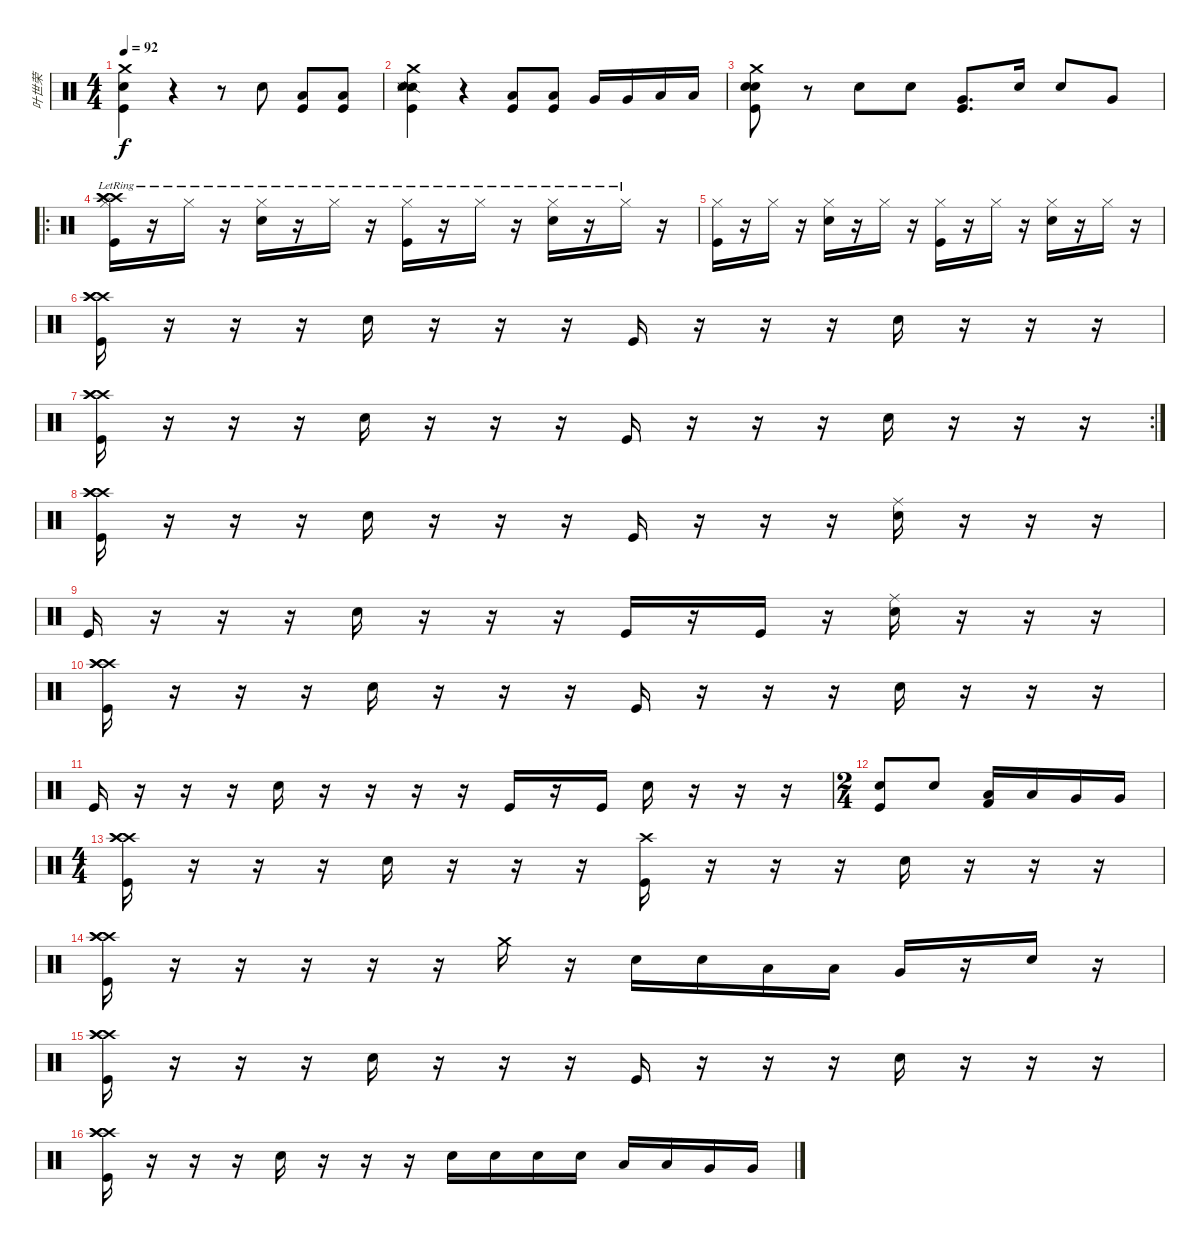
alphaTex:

\track ("叶世荣" "叶世荣") {instrument percussion}
\staff {score}
\articulation defaults
\ts (4 4)
\tempo 92
\clef neutral
\ks c
("Crash medium (hit)" "Electric Snare (hit)" "Kick (hit)").4{dy f} r.4 r.8 "Electric Snare (hit)".8 ("Low Floor Tom (hit)" "Kick (hit)").8 ("Low Floor Tom (hit)" "Kick (hit)").8 |
("Snare (side stick) 2" "Metronome (hit)" "Metronome (bell)" "Kick (hit)" "Crash medium (hit)").4 r.4 ("Low Tom (hit)" "Kick (hit)").8 ("Low Tom (hit)" "Kick (hit)").8 "Very Low Tom (hit)".16 "Very Low Tom (hit)".16 "Low Floor Tom (hit)".16 "Low Floor Tom (hit)".16 |
("Crash medium (hit)" "Metronome (bell)" "Kick (hit)" "Electric Snare (hit)").8 r.8 "Electric Snare (hit)".8 "Electric Snare (hit)".8 ("Very Low Tom (hit)" "Kick (hit)").8{d} "Electric Snare (hit)".16 "Electric Snare (hit)".8 "Very Low Tom (hit)".8 |
\ro
("Hi-Hat (closed)"{lr} "Kick (hit)" "Crash high (hit)" "Crash high (hit)" "Crash high (hit)").16 r.16 "Hi-Hat (closed)"{lr}.16 r.16 ("Hi-Hat (closed)"{lr} "Electric Snare (hit)").16 r.16 "Hi-Hat (closed)"{lr}.16 r.16 ("Hi-Hat (closed)"{lr} "Kick (hit)").16 r.16 "Hi-Hat (closed)"{lr}.16 r.16 ("Hi-Hat (closed)"{lr} "Electric Snare (hit)").16 r.16 "Hi-Hat (closed)"{lr}.16 r.16 |
("Hi-Hat (closed)" "Kick (hit)").16 r.16 "Hi-Hat (closed)".16 r.16 ("Hi-Hat (closed)" "Electric Snare (hit)").16 r.16 "Hi-Hat (closed)".16 r.16 ("Hi-Hat (closed)" "Kick (hit)").16 r.16 "Hi-Hat (closed)".16 r.16 ("Hi-Hat (closed)" "Electric Snare (hit)").16 r.16 "Hi-Hat (closed)".16 r.16 |
("Kick (hit)" "Crash high (hit)" "Crash high (hit)" "Crash high (hit)").16 r.16 r.16 r.16 "Electric Snare (hit)".16 r.16 r.16 r.16 "Kick (hit)".16 r.16 r.16 r.16 "Electric Snare (hit)".16 r.16 r.16 r.16 |
\rc 2
("Kick (hit)" "Crash high (hit)" "Crash high (hit)" "Crash high (hit)").16 r.16 r.16 r.16 "Electric Snare (hit)".16 r.16 r.16 r.16 "Kick (hit)".16 r.16 r.16 r.16 "Electric Snare (hit)".16 r.16 r.16 r.16 |
("Kick (hit)" "Crash high (hit)" "Crash high (hit)" "Crash high (hit)").16 r.16 r.16 r.16 "Electric Snare (hit)".16 r.16 r.16 r.16 "Kick (hit)".16 r.16 r.16 r.16 ("Ride (middle)" "Electric Snare (hit)").16 r.16 r.16 r.16 |
"Kick (hit)".16 r.16 r.16 r.16 "Electric Snare (hit)".16 r.16 r.16 r.16 "Kick (hit)".16 r.16 "Kick (hit)".16 r.16 ("Ride (middle)" "Electric Snare (hit)").16 r.16 r.16 r.16 |
("Kick (hit)" "Crash high (hit)" "Crash high (hit)" "Crash high (hit)").16 r.16 r.16 r.16 "Electric Snare (hit)".16 r.16 r.16 r.16 "Kick (hit)".16 r.16 r.16 r.16 "Electric Snare (hit)".16 r.16 r.16 r.16 |
"Kick (hit)".16 r.16 r.16 r.16 "Electric Snare (hit)".16 r.16 r.16 r.16 r.16 "Kick (hit)".16 r.16 "Kick (hit)".16 "Electric Snare (hit)".16 r.16 r.16 r.16 |
\ts (2 4)
("Electric Snare (hit)" "Kick (hit)").8 "Electric Snare (hit)".8 ("Low Tom (hit)" "Kick (hit) 2").16 "Low Tom (hit)".16 "Very Low Tom (hit)".16 "Very Low Tom (hit)".16 |
\ts (4 4)
("Kick (hit)" "Crash high (hit)" "Crash high (hit)" "Crash high (hit)").16 r.16 r.16 r.16 "Electric Snare (hit)".16 r.16 r.16 r.16 ("Kick (hit)" "Crash high (hit)").16 r.16 r.16 r.16 "Electric Snare (hit)".16 r.16 r.16 r.16 |
("Kick (hit)" "Crash high (hit)" "Crash high (hit)" "Crash high (hit)").16 r.16 r.16 r.16 r.16 r.16 "Crash medium (hit)".16 r.16 "Electric Snare (hit)".16 "Electric Snare (hit)".16 "Low Tom (hit)".16 "Low Tom (hit)".16 "Very Low Tom (hit)".16 r.16 "Electric Snare (hit)".16 r.16 |
("Kick (hit)" "Crash high (hit)" "Crash high (hit)" "Crash high (hit)").16 r.16 r.16 r.16 "Electric Snare (hit)".16 r.16 r.16 r.16 "Kick (hit)".16 r.16 r.16 r.16 "Electric Snare (hit)".16 r.16 r.16 r.16 |
("Kick (hit)" "Crash high (hit)" "Crash high (hit)" "Crash high (hit)").16 r.16 r.16 r.16 "Electric Snare (hit)".16 r.16 r.16 r.16 "Electric Snare (hit)".16 "Electric Snare (hit)".16 "Electric Snare (hit)".16 "Electric Snare (hit)".16 "Low Tom (hit)".16 "Low Tom (hit)".16 "Very Low Tom (hit)".16 "Very Low Tom (hit)".16
